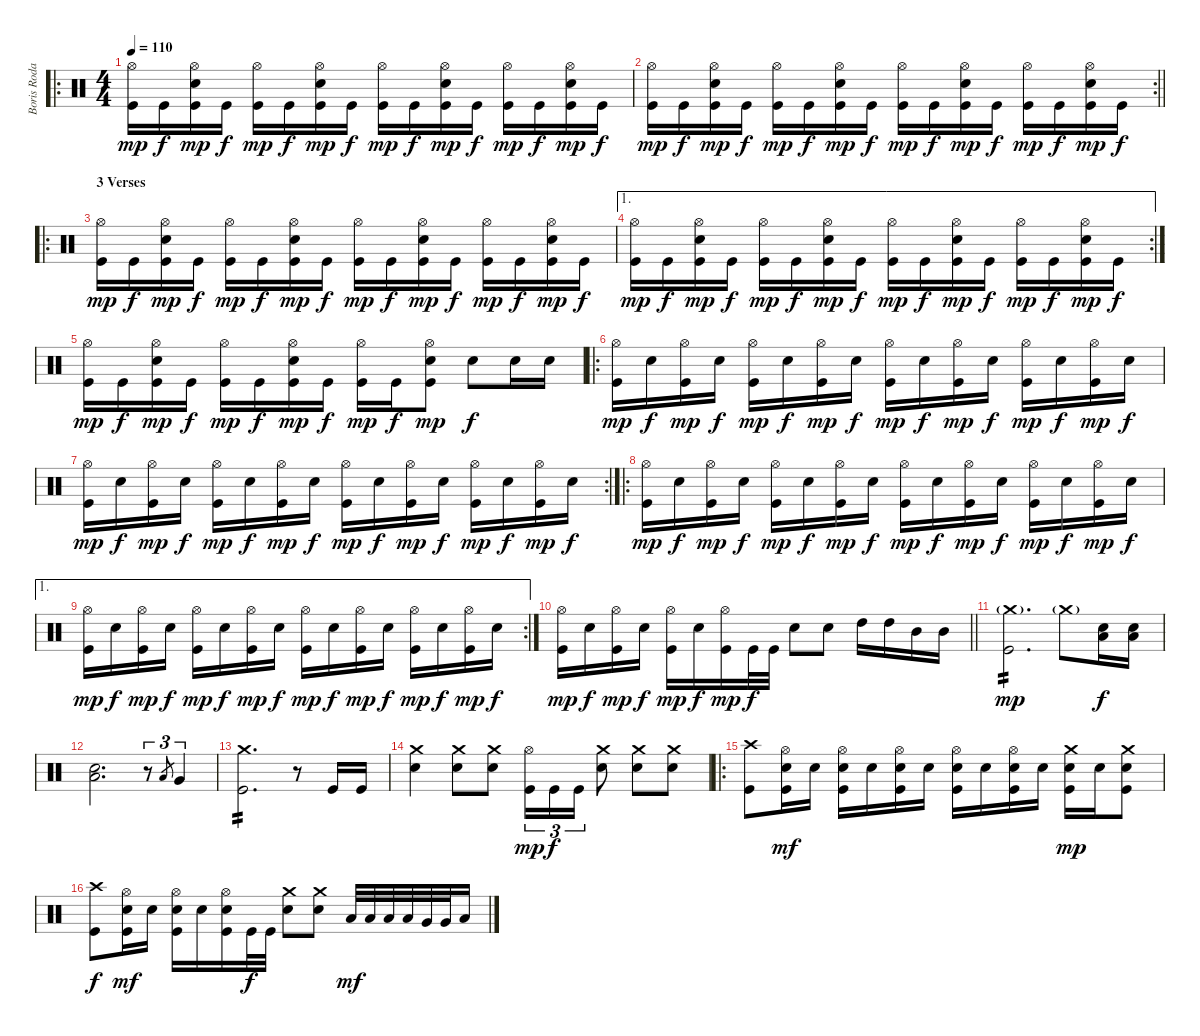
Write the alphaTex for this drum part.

\track ("Boris Rodas" "Boris Roda") {instrument percussion}
\staff {score}
\articulation defaults
\ro
\ts (4 4)
\tempo 110
\clef neutral
\ks c
("Hi-Hat (open)" "Kick (hit)").16{dy mp} "Kick (hit)".16{dy f} ("Hi-Hat (open)" "Electric Snare (hit)" "Kick (hit)").16{dy mp} "Kick (hit)".16{dy f} ("Hi-Hat (open)" "Kick (hit)").16{dy mp} "Kick (hit)".16{dy f} ("Hi-Hat (open)" "Electric Snare (hit)" "Kick (hit)").16{dy mp} "Kick (hit)".16{dy f} ("Hi-Hat (open)" "Kick (hit)").16{dy mp} "Kick (hit)".16{dy f} ("Hi-Hat (open)" "Electric Snare (hit)" "Kick (hit)").16{dy mp} "Kick (hit)".16{dy f} ("Hi-Hat (open)" "Kick (hit)").16{dy mp} "Kick (hit)".16{dy f} ("Hi-Hat (open)" "Electric Snare (hit)" "Kick (hit)").16{dy mp} "Kick (hit)".16{dy f} |
\rc 2
\barLineRight lightlight
("Hi-Hat (open)" "Kick (hit)").16{dy mp} "Kick (hit)".16{dy f} ("Hi-Hat (open)" "Electric Snare (hit)" "Kick (hit)").16{dy mp} "Kick (hit)".16{dy f} ("Hi-Hat (open)" "Kick (hit)").16{dy mp} "Kick (hit)".16{dy f} ("Hi-Hat (open)" "Electric Snare (hit)" "Kick (hit)").16{dy mp} "Kick (hit)".16{dy f} ("Hi-Hat (open)" "Kick (hit)").16{dy mp} "Kick (hit)".16{dy f} ("Hi-Hat (open)" "Electric Snare (hit)" "Kick (hit)").16{dy mp} "Kick (hit)".16{dy f} ("Hi-Hat (open)" "Kick (hit)").16{dy mp} "Kick (hit)".16{dy f} ("Hi-Hat (open)" "Electric Snare (hit)" "Kick (hit)").16{dy mp} "Kick (hit)".16{dy f} |
\ro
\section ("" "3 Verses")
("Hi-Hat (open)" "Kick (hit)").16{dy mp} "Kick (hit)".16{dy f} ("Hi-Hat (open)" "Electric Snare (hit)" "Kick (hit)").16{dy mp} "Kick (hit)".16{dy f} ("Hi-Hat (open)" "Kick (hit)").16{dy mp} "Kick (hit)".16{dy f} ("Hi-Hat (open)" "Electric Snare (hit)" "Kick (hit)").16{dy mp} "Kick (hit)".16{dy f} ("Hi-Hat (open)" "Kick (hit)").16{dy mp} "Kick (hit)".16{dy f} ("Hi-Hat (open)" "Electric Snare (hit)" "Kick (hit)").16{dy mp} "Kick (hit)".16{dy f} ("Hi-Hat (open)" "Kick (hit)").16{dy mp} "Kick (hit)".16{dy f} ("Hi-Hat (open)" "Electric Snare (hit)" "Kick (hit)").16{dy mp} "Kick (hit)".16{dy f} |
\ae 1
\rc 2
("Hi-Hat (open)" "Kick (hit)").16{dy mp} "Kick (hit)".16{dy f} ("Hi-Hat (open)" "Electric Snare (hit)" "Kick (hit)").16{dy mp} "Kick (hit)".16{dy f} ("Hi-Hat (open)" "Kick (hit)").16{dy mp} "Kick (hit)".16{dy f} ("Hi-Hat (open)" "Electric Snare (hit)" "Kick (hit)").16{dy mp} "Kick (hit)".16{dy f} ("Hi-Hat (open)" "Kick (hit)").16{dy mp} "Kick (hit)".16{dy f} ("Hi-Hat (open)" "Electric Snare (hit)" "Kick (hit)").16{dy mp} "Kick (hit)".16{dy f} ("Hi-Hat (open)" "Kick (hit)").16{dy mp} "Kick (hit)".16{dy f} ("Hi-Hat (open)" "Electric Snare (hit)" "Kick (hit)").16{dy mp} "Kick (hit)".16{dy f} |
("Hi-Hat (open)" "Kick (hit)").16{dy mp} "Kick (hit)".16{dy f} ("Hi-Hat (open)" "Electric Snare (hit)" "Kick (hit)").16{dy mp} "Kick (hit)".16{dy f} ("Hi-Hat (open)" "Kick (hit)").16{dy mp} "Kick (hit)".16{dy f} ("Hi-Hat (open)" "Electric Snare (hit)" "Kick (hit)").16{dy mp} "Kick (hit)".16{dy f} ("Hi-Hat (open)" "Kick (hit)").16{dy mp} "Kick (hit)".16{dy f} ("Hi-Hat (open)" "Electric Snare (hit)" "Kick (hit)").8{dy mp} "Electric Snare (hit)".8{dy f} "Electric Snare (hit)".16 "Electric Snare (hit)".16 |
\ro
("Hi-Hat (open)" "Kick (hit)").16{dy mp} "Electric Snare (hit)".16{dy f} ("Hi-Hat (open)" "Kick (hit)").16{dy mp} "Electric Snare (hit)".16{dy f} ("Hi-Hat (open)" "Kick (hit)").16{dy mp} "Electric Snare (hit)".16{dy f} ("Hi-Hat (open)" "Kick (hit)").16{dy mp} "Electric Snare (hit)".16{dy f} ("Hi-Hat (open)" "Kick (hit)").16{dy mp} "Electric Snare (hit)".16{dy f} ("Hi-Hat (open)" "Kick (hit)").16{dy mp} "Electric Snare (hit)".16{dy f} ("Hi-Hat (open)" "Kick (hit)").16{dy mp} "Electric Snare (hit)".16{dy f} ("Hi-Hat (open)" "Kick (hit)").16{dy mp} "Electric Snare (hit)".16{dy f} |
\rc 2
("Hi-Hat (open)" "Kick (hit)").16{dy mp} "Electric Snare (hit)".16{dy f} ("Hi-Hat (open)" "Kick (hit)").16{dy mp} "Electric Snare (hit)".16{dy f} ("Hi-Hat (open)" "Kick (hit)").16{dy mp} "Electric Snare (hit)".16{dy f} ("Hi-Hat (open)" "Kick (hit)").16{dy mp} "Electric Snare (hit)".16{dy f} ("Hi-Hat (open)" "Kick (hit)").16{dy mp} "Electric Snare (hit)".16{dy f} ("Hi-Hat (open)" "Kick (hit)").16{dy mp} "Electric Snare (hit)".16{dy f} ("Hi-Hat (open)" "Kick (hit)").16{dy mp} "Electric Snare (hit)".16{dy f} ("Hi-Hat (open)" "Kick (hit)").16{dy mp} "Electric Snare (hit)".16{dy f} |
\ro
("Hi-Hat (open)" "Kick (hit)").16{dy mp} "Electric Snare (hit)".16{dy f} ("Hi-Hat (open)" "Kick (hit)").16{dy mp} "Electric Snare (hit)".16{dy f} ("Hi-Hat (open)" "Kick (hit)").16{dy mp} "Electric Snare (hit)".16{dy f} ("Hi-Hat (open)" "Kick (hit)").16{dy mp} "Electric Snare (hit)".16{dy f} ("Hi-Hat (open)" "Kick (hit)").16{dy mp} "Electric Snare (hit)".16{dy f} ("Hi-Hat (open)" "Kick (hit)").16{dy mp} "Electric Snare (hit)".16{dy f} ("Hi-Hat (open)" "Kick (hit)").16{dy mp} "Electric Snare (hit)".16{dy f} ("Hi-Hat (open)" "Kick (hit)").16{dy mp} "Electric Snare (hit)".16{dy f} |
\ae 1
\rc 2
("Hi-Hat (open)" "Kick (hit)").16{dy mp} "Electric Snare (hit)".16{dy f} ("Hi-Hat (open)" "Kick (hit)").16{dy mp} "Electric Snare (hit)".16{dy f} ("Hi-Hat (open)" "Kick (hit)").16{dy mp} "Electric Snare (hit)".16{dy f} ("Hi-Hat (open)" "Kick (hit)").16{dy mp} "Electric Snare (hit)".16{dy f} ("Hi-Hat (open)" "Kick (hit)").16{dy mp} "Electric Snare (hit)".16{dy f} ("Hi-Hat (open)" "Kick (hit)").16{dy mp} "Electric Snare (hit)".16{dy f} ("Hi-Hat (open)" "Kick (hit)").16{dy mp} "Electric Snare (hit)".16{dy f} ("Hi-Hat (open)" "Kick (hit)").16{dy mp} "Electric Snare (hit)".16{dy f} |
\barLineRight lightlight
("Hi-Hat (open)" "Kick (hit)").16{dy mp} "Electric Snare (hit)".16{dy f} ("Hi-Hat (open)" "Kick (hit)").16{dy mp} "Electric Snare (hit)".16{dy f} ("Hi-Hat (open)" "Kick (hit)").16{dy mp} "Electric Snare (hit)".16{dy f} ("Hi-Hat (open)" "Kick (hit)").16{dy mp} "Kick (hit)".32{dy f} "Kick (hit)".32 "Electric Snare (hit)".8 "Electric Snare (hit)".8 "High Tom (hit)".16 "High Tom (hit)".16 "Mid Tom (hit)".16 "Mid Tom (hit)".16 |
\section ("" "")
("Crash medium (hit)"{g} "Kick (hit)").2{d tp 2 dy mp} "Crash medium (hit)"{g}.8 ("Low Floor Tom (hit)" "Electric Snare (hit)").16{dy f} ("Low Floor Tom (hit)" "Electric Snare (hit)").16 |
("Low Floor Tom (hit)" "Electric Snare (hit)").2{d} r.8{tu (3 2)} "Low Tom (hit)".8{gr} "Very Low Tom (hit)".4{tu (3 2)} |
("Crash medium (hit)" "Kick (hit)").2{d tp 2} r.8 "Kick (hit)".16 "Kick (hit)".16 |
("Crash medium (hit)" "Electric Snare (hit)").4 ("Crash medium (hit)" "Electric Snare (hit)").8 ("Crash medium (hit)" "Electric Snare (hit)").8 ("Hi-Hat (open)" "Kick (hit)").16{tu (3 2) dy mp} "Kick (hit)".16{tu (3 2) dy f} "Kick (hit)".16{tu (3 2)} ("Crash medium (hit)" "Electric Snare (hit)").8 ("Crash medium (hit)" "Electric Snare (hit)").8 ("Crash medium (hit)" "Electric Snare (hit)").8 |
\ro
("Crash high (hit)" "Kick (hit)").8 ("Hi-Hat (open)" "Electric Snare (hit)" "Kick (hit)").16{dy mf} "Electric Snare (hit)".16 ("Hi-Hat (open)" "Electric Snare (hit)" "Kick (hit)").16 "Electric Snare (hit)".16 ("Hi-Hat (open)" "Electric Snare (hit)" "Kick (hit)").16 "Electric Snare (hit)".16 ("Hi-Hat (open)" "Electric Snare (hit)" "Kick (hit)").16 "Electric Snare (hit)".16 ("Hi-Hat (open)" "Electric Snare (hit)" "Kick (hit)").16 "Electric Snare (hit)".16 ("Crash medium (hit)" "Electric Snare (hit)" "Kick (hit)").16{dy mp} "Electric Snare (hit)".16 ("Crash medium (hit)" "Electric Snare (hit)" "Kick (hit)").8 |
("Crash high (hit)" "Kick (hit)").8{dy f} ("Hi-Hat (open)" "Electric Snare (hit)" "Kick (hit)").16{dy mf} "Electric Snare (hit)".16 ("Hi-Hat (open)" "Electric Snare (hit)" "Kick (hit)").16 "Electric Snare (hit)".16 ("Hi-Hat (open)" "Electric Snare (hit)" "Kick (hit)").16 "Kick (hit)".32{dy f} "Kick (hit)".32 ("Crash medium (hit)" "Electric Snare (hit)").8 ("Crash medium (hit)" "Electric Snare (hit)").8 "Low Tom (hit)".32{dy mf} "Low Tom (hit)".32 "Low Tom (hit)".32 "Low Tom (hit)".32 "Very Low Tom (hit)".32 "Very Low Tom (hit)".32 "Low Floor Tom (hit)".16
